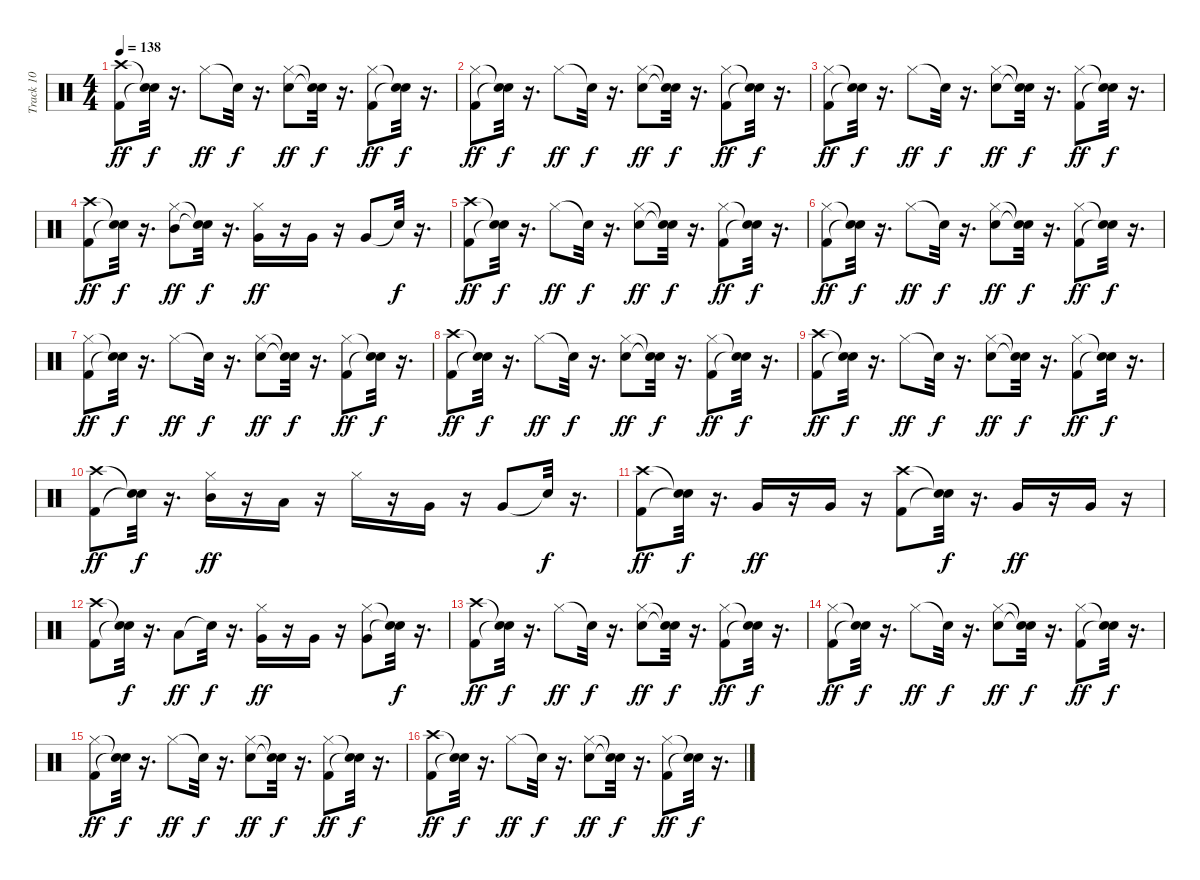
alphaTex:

\track ("Track 10" "Track 10") {instrument percussion}
\staff {score}
\articulation defaults
\ts (4 4)
\tempo 138
\clef neutral
\ks c
("Crash high (hit)" "Kick (hit) 2").8{dy ff} ("Snare (hit)"{t} "Snare (hit)"{t}).32{dy f} r.16{d} "Hi-Hat (closed)".8{dy ff} "Snare (hit)"{t}.32{dy f} r.16{d} ("Snare (hit) 2" "Hi-Hat (closed)").8{dy ff} ("Snare (hit)"{t} "Snare (hit)"{t}).32{dy f} r.16{d} ("Hi-Hat (closed)" "Kick (hit) 2").8{dy ff} ("Snare (hit)"{t} "Snare (hit)"{t}).32{dy f} r.16{d} |
("Hi-Hat (closed)" "Kick (hit) 2").8{dy ff} ("Snare (hit)"{t} "Snare (hit)"{t}).32{dy f} r.16{d} "Hi-Hat (closed)".8{dy ff} "Snare (hit)"{t}.32{dy f} r.16{d} ("Snare (hit) 2" "Hi-Hat (closed)").8{dy ff} ("Snare (hit)"{t} "Snare (hit)"{t}).32{dy f} r.16{d} ("Hi-Hat (closed)" "Kick (hit) 2").8{dy ff} ("Snare (hit)"{t} "Snare (hit)"{t}).32{dy f} r.16{d} |
("Hi-Hat (closed)" "Kick (hit) 2").8{dy ff} ("Snare (hit)"{t} "Snare (hit)"{t}).32{dy f} r.16{d} "Hi-Hat (closed)".8{dy ff} "Snare (hit)"{t}.32{dy f} r.16{d} ("Snare (hit) 2" "Hi-Hat (closed)").8{dy ff} ("Snare (hit)"{t} "Snare (hit)"{t}).32{dy f} r.16{d} ("Hi-Hat (closed)" "Kick (hit) 2").8{dy ff} ("Snare (hit)"{t} "Snare (hit)"{t}).32{dy f} r.16{d} |
("Crash high (hit)" "Kick (hit) 2").8{dy ff} ("Snare (hit)"{t} "Snare (hit)"{t}).32{dy f} r.16{d} ("Mid Tom (hit)" "Hi-Hat (closed)").8{dy ff} ("Snare (hit)"{t} "Snare (hit)"{t}).32{dy f} r.16{d} ("Very Low Tom (hit)" "Hi-Hat (closed)").16{dy ff} r.16 "Very Low Tom (hit)".16 r.16 "Very Low Tom (hit)".8 "Snare (hit)"{t}.32{dy f} r.16{d} |
("Crash high (hit)" "Kick (hit) 2").8{dy ff} ("Snare (hit)"{t} "Snare (hit)"{t}).32{dy f} r.16{d} "Hi-Hat (closed)".8{dy ff} "Snare (hit)"{t}.32{dy f} r.16{d} ("Snare (hit) 2" "Hi-Hat (closed)").8{dy ff} ("Snare (hit)"{t} "Snare (hit)"{t}).32{dy f} r.16{d} ("Hi-Hat (closed)" "Kick (hit) 2").8{dy ff} ("Snare (hit)"{t} "Snare (hit)"{t}).32{dy f} r.16{d} |
("Hi-Hat (closed)" "Kick (hit) 2").8{dy ff} ("Snare (hit)"{t} "Snare (hit)"{t}).32{dy f} r.16{d} "Hi-Hat (closed)".8{dy ff} "Snare (hit)"{t}.32{dy f} r.16{d} ("Snare (hit) 2" "Hi-Hat (closed)").8{dy ff} ("Snare (hit)"{t} "Snare (hit)"{t}).32{dy f} r.16{d} ("Hi-Hat (closed)" "Kick (hit) 2").8{dy ff} ("Snare (hit)"{t} "Snare (hit)"{t}).32{dy f} r.16{d} |
("Hi-Hat (closed)" "Kick (hit) 2").8{dy ff} ("Snare (hit)"{t} "Snare (hit)"{t}).32{dy f} r.16{d} "Hi-Hat (closed)".8{dy ff} "Snare (hit)"{t}.32{dy f} r.16{d} ("Snare (hit) 2" "Hi-Hat (closed)").8{dy ff} ("Snare (hit)"{t} "Snare (hit)"{t}).32{dy f} r.16{d} ("Hi-Hat (closed)" "Kick (hit) 2").8{dy ff} ("Snare (hit)"{t} "Snare (hit)"{t}).32{dy f} r.16{d} |
("Crash high (hit)" "Kick (hit) 2").8{dy ff} ("Snare (hit)"{t} "Snare (hit)"{t}).32{dy f} r.16{d} "Hi-Hat (closed)".8{dy ff} "Snare (hit)"{t}.32{dy f} r.16{d} ("Snare (hit) 2" "Hi-Hat (closed)").8{dy ff} ("Snare (hit)"{t} "Snare (hit)"{t}).32{dy f} r.16{d} ("Hi-Hat (closed)" "Kick (hit) 2").8{dy ff} ("Snare (hit)"{t} "Snare (hit)"{t}).32{dy f} r.16{d} |
("Crash high (hit)" "Kick (hit) 2").8{dy ff} ("Snare (hit)"{t} "Snare (hit)"{t}).32{dy f} r.16{d} "Hi-Hat (closed)".8{dy ff} "Snare (hit)"{t}.32{dy f} r.16{d} ("Snare (hit) 2" "Hi-Hat (closed)").8{dy ff} ("Snare (hit)"{t} "Snare (hit)"{t}).32{dy f} r.16{d} ("Hi-Hat (closed)" "Kick (hit) 2").8{dy ff} ("Snare (hit)"{t} "Snare (hit)"{t}).32{dy f} r.16{d} |
("Crash high (hit)" "Kick (hit) 2").8{dy ff} ("Snare (hit)"{t} "Snare (hit)"{t}).32{dy f} r.16{d} ("Mid Tom (hit)" "Hi-Hat (closed)").16{dy ff} r.16 "Low Tom (hit)".16 r.16 "Hi-Hat (closed)".16 r.16 "Very Low Tom (hit)".16 r.16 "Very Low Tom (hit)".8 "Snare (hit)"{t}.32{dy f} r.16{d} |
("Crash high (hit)" "Kick (hit) 2").8{dy ff} ("Snare (hit)"{t} "Snare (hit)"{t}).32{dy f} r.16{d} "Very Low Tom (hit)".16{dy ff} r.16 "Very Low Tom (hit)".16 r.16 ("Crash high (hit)" "Kick (hit) 2").8 ("Snare (hit)"{t} "Snare (hit)"{t}).32{dy f} r.16{d} "Very Low Tom (hit)".16{dy ff} r.16 "Very Low Tom (hit)".16 r.16 |
("Crash high (hit)" "Kick (hit) 2").8 ("Snare (hit)"{t} "Snare (hit)"{t}).32{dy f} r.16{d} "Low Tom (hit)".8{dy ff} "Snare (hit)"{t}.32{dy f} r.16{d} ("Very Low Tom (hit)" "Hi-Hat (closed)").16{dy ff} r.16 "Very Low Tom (hit)".16 r.16 ("Very Low Tom (hit)" "Hi-Hat (closed)").8 ("Snare (hit)"{t} "Snare (hit)"{t}).32{dy f} r.16{d} |
("Crash high (hit)" "Kick (hit) 2").8{dy ff} ("Snare (hit)"{t} "Snare (hit)"{t}).32{dy f} r.16{d} "Hi-Hat (closed)".8{dy ff} "Snare (hit)"{t}.32{dy f} r.16{d} ("Snare (hit) 2" "Hi-Hat (closed)").8{dy ff} ("Snare (hit)"{t} "Snare (hit)"{t}).32{dy f} r.16{d} ("Hi-Hat (closed)" "Kick (hit) 2").8{dy ff} ("Snare (hit)"{t} "Snare (hit)"{t}).32{dy f} r.16{d} |
("Hi-Hat (closed)" "Kick (hit) 2").8{dy ff} ("Snare (hit)"{t} "Snare (hit)"{t}).32{dy f} r.16{d} "Hi-Hat (closed)".8{dy ff} "Snare (hit)"{t}.32{dy f} r.16{d} ("Snare (hit) 2" "Hi-Hat (closed)").8{dy ff} ("Snare (hit)"{t} "Snare (hit)"{t}).32{dy f} r.16{d} ("Hi-Hat (closed)" "Kick (hit) 2").8{dy ff} ("Snare (hit)"{t} "Snare (hit)"{t}).32{dy f} r.16{d} |
("Hi-Hat (closed)" "Kick (hit) 2").8{dy ff} ("Snare (hit)"{t} "Snare (hit)"{t}).32{dy f} r.16{d} "Hi-Hat (closed)".8{dy ff} "Snare (hit)"{t}.32{dy f} r.16{d} ("Snare (hit) 2" "Hi-Hat (closed)").8{dy ff} ("Snare (hit)"{t} "Snare (hit)"{t}).32{dy f} r.16{d} ("Hi-Hat (closed)" "Kick (hit) 2").8{dy ff} ("Snare (hit)"{t} "Snare (hit)"{t}).32{dy f} r.16{d} |
("Crash high (hit)" "Kick (hit) 2").8{dy ff} ("Snare (hit)"{t} "Snare (hit)"{t}).32{dy f} r.16{d} "Hi-Hat (closed)".8{dy ff} "Snare (hit)"{t}.32{dy f} r.16{d} ("Snare (hit) 2" "Hi-Hat (closed)").8{dy ff} ("Snare (hit)"{t} "Snare (hit)"{t}).32{dy f} r.16{d} ("Hi-Hat (closed)" "Kick (hit) 2").8{dy ff} ("Snare (hit)"{t} "Snare (hit)"{t}).32{dy f} r.16{d}
